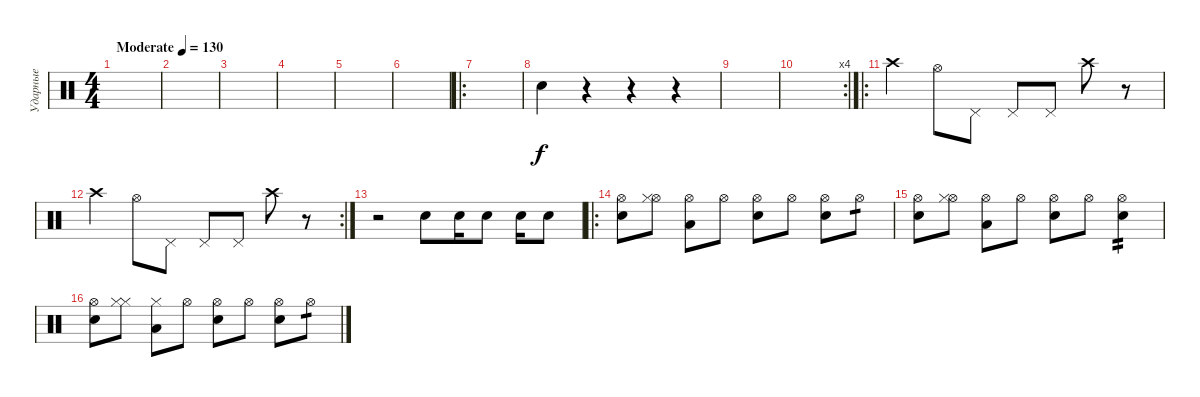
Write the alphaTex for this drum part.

\track ("Ударные" "Ударные") {instrument percussion}
\staff {score}
\articulation defaults
\ts (4 4)
\tempo (130 "Moderate")
\clef neutral
\ks c
|
|
|
|
|
|
\ro
|
"Electric Snare (hit)".4 r.4 r.4 r.4 |
|
\rc 4
|
\ro "Crash high (hit)".4 "Hi-Hat (open)".8 "Pedal Hi-Hat (hit)".8 "Pedal Hi-Hat (hit)".8 "Pedal Hi-Hat (hit)".8 "Crash high (hit)".8
r.8 |
\rc 2 "Crash high (hit)".4 "Hi-Hat (open)".8 "Pedal Hi-Hat (hit)".8 "Pedal Hi-Hat (hit)".8 "Pedal Hi-Hat (hit)".8 "Crash high (hit)".8
r.8 |
r.2 "Electric Snare (hit)".8 "Electric Snare (hit)".16 "Electric Snare (hit)".8 "Electric Snare (hit)".16 "Electric Snare (hit)".8 |
\ro
("Hi-Hat (open)" "Electric Snare (hit)").8 ("Hi-Hat (open)" "Hi-Hat (closed)").8 ("Hi-Hat (open)" "Low Floor Tom (hit)").8 "Hi-Hat (open)".8 ("Hi-Hat (open)" "Electric Snare (hit)").8 "Hi-Hat (open)".8 ("Hi-Hat (open)" "Electric Snare (hit)").8 "Hi-Hat (open)".8{tp 1} |
("Hi-Hat (open)" "Electric Snare (hit)").8 ("Hi-Hat (open)" "Hi-Hat (closed)").8 ("Hi-Hat (open)" "Low Floor Tom (hit)").8 "Hi-Hat (open)".8 ("Hi-Hat (open)" "Electric Snare (hit)").8 "Hi-Hat (open)".8 ("Hi-Hat (open)" "Electric Snare (hit)").4{tp 2} |
("Hi-Hat (open)" "Electric Snare (hit)").8 ("Hi-Hat (closed)" "Hi-Hat (closed)").8 ("Hi-Hat (closed)" "Low Floor Tom (hit)").8 "Hi-Hat (open)".8 ("Hi-Hat (open)" "Electric Snare (hit)").8 "Hi-Hat (open)".8 ("Hi-Hat (open)" "Electric Snare (hit)").8 "Hi-Hat (open)".8{tp 1}
